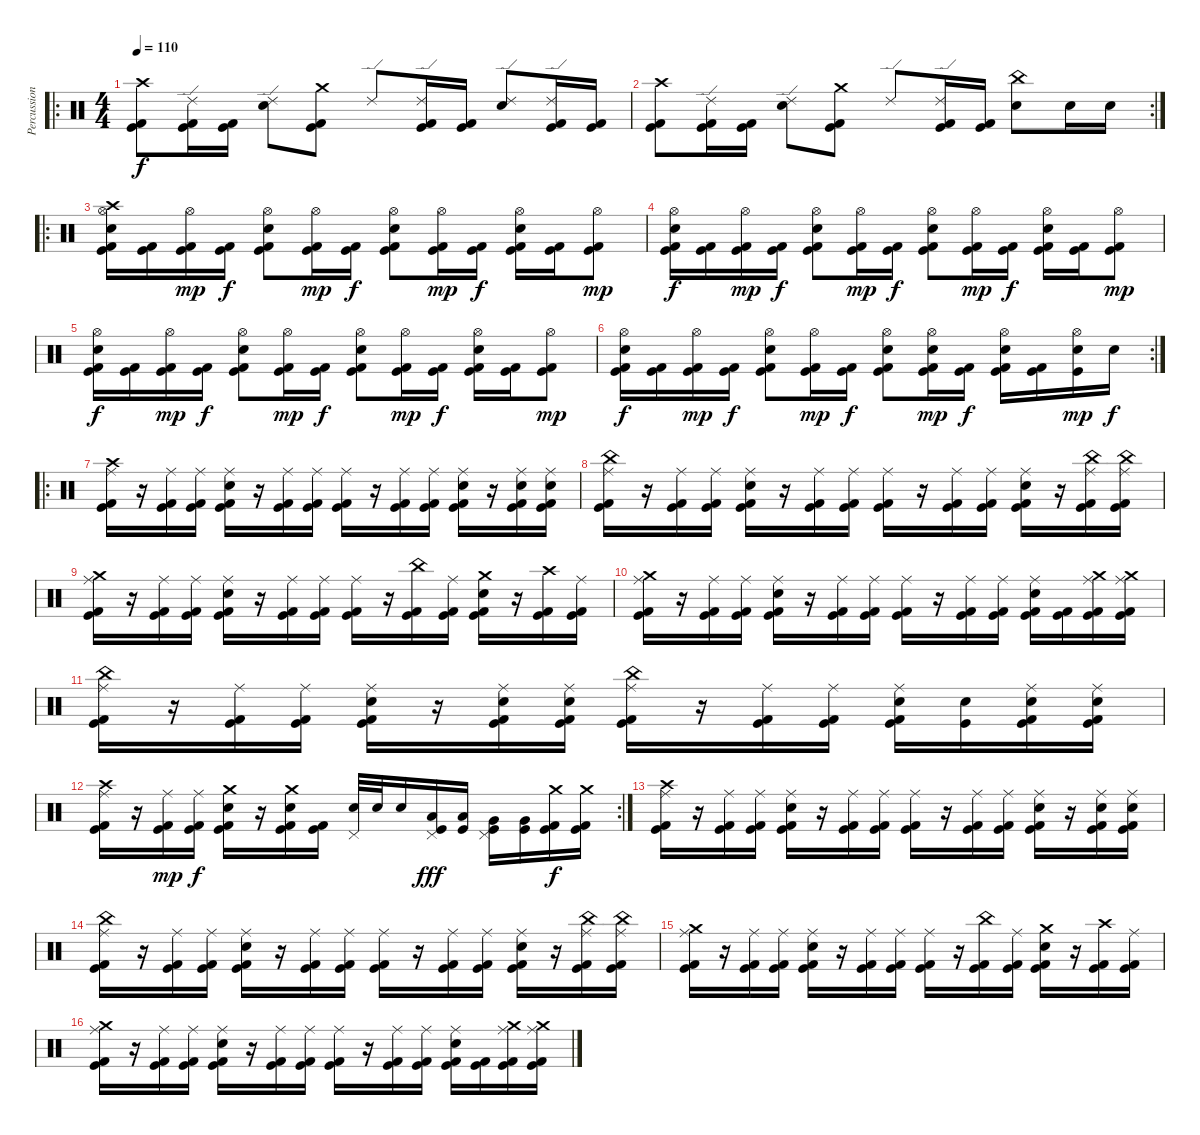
\track ("Percussion" "Percussion") {instrument percussion}
\staff {score}
\articulation defaults
\ro
\ts (4 4)
\tempo 110
\clef neutral
\ks c
("Crash high (hit)" "Kick (hit) 2" "Kick (hit)").8{dy f} ("Ride (edge) 2" "Kick (hit) 2" "Kick (hit)").16 ("Kick (hit) 2" "Kick (hit)").16 ("Ride (edge) 2" "Snare (hit) 2").8 ("Crash medium (hit)" "Kick (hit) 2" "Kick (hit)").8 "Ride (edge) 2".8 ("Ride (edge) 2" "Kick (hit) 2" "Kick (hit)").16 ("Kick (hit) 2" "Kick (hit)").16 ("Ride (edge) 2" "Snare (hit) 2").8 ("Ride (edge) 2" "Kick (hit) 2" "Kick (hit)").16 ("Kick (hit) 2" "Kick (hit)").16 |
\rc 2
("Crash high (hit)" "Kick (hit) 2" "Kick (hit)").8 ("Ride (edge) 2" "Kick (hit) 2" "Kick (hit)").16 ("Kick (hit) 2" "Kick (hit)").16 ("Ride (edge) 2" "Snare (hit) 2").8 ("Crash medium (hit)" "Kick (hit) 2" "Kick (hit)").8 "Ride (edge) 2".8 ("Ride (edge) 2" "Kick (hit) 2" "Kick (hit)").16 ("Kick (hit) 2" "Kick (hit)").16 ("China (hit)" "Snare (hit) 2").8 "Snare (hit) 2".16 "Snare (hit) 2".16 |
\ro
("Hi-Hat (open)" "Crash high (hit)" "Snare (hit) 2" "Kick (hit) 2" "Kick (hit)").16 ("Kick (hit) 2" "Kick (hit)").16 ("Hi-Hat (open)" "Kick (hit) 2" "Kick (hit)").16{dy mp} ("Kick (hit) 2" "Kick (hit)").16{dy f} ("Hi-Hat (open)" "Snare (hit) 2" "Kick (hit) 2" "Kick (hit)").8 ("Hi-Hat (open)" "Kick (hit) 2" "Kick (hit)").16{dy mp} ("Kick (hit) 2" "Kick (hit)").16{dy f} ("Hi-Hat (open)" "Snare (hit) 2" "Kick (hit) 2" "Kick (hit)").8 ("Hi-Hat (open)" "Kick (hit) 2" "Kick (hit)").16{dy mp} ("Kick (hit) 2" "Kick (hit)").16{dy f} ("Hi-Hat (open)" "Snare (hit) 2" "Kick (hit) 2" "Kick (hit)").16 ("Kick (hit) 2" "Kick (hit)").16 ("Hi-Hat (open)" "Kick (hit) 2" "Kick (hit)").8{dy mp} |
("Hi-Hat (open)" "Snare (hit) 2" "Kick (hit) 2" "Kick (hit)").16{dy f} ("Kick (hit) 2" "Kick (hit)").16 ("Hi-Hat (open)" "Kick (hit) 2" "Kick (hit)").16{dy mp} ("Kick (hit) 2" "Kick (hit)").16{dy f} ("Hi-Hat (open)" "Snare (hit) 2" "Kick (hit) 2" "Kick (hit)").8 ("Hi-Hat (open)" "Kick (hit) 2" "Kick (hit)").16{dy mp} ("Kick (hit) 2" "Kick (hit)").16{dy f} ("Hi-Hat (open)" "Snare (hit) 2" "Kick (hit) 2" "Kick (hit)").8 ("Hi-Hat (open)" "Kick (hit) 2" "Kick (hit)").16{dy mp} ("Kick (hit) 2" "Kick (hit)").16{dy f} ("Hi-Hat (open)" "Snare (hit) 2" "Kick (hit) 2" "Kick (hit)").16 ("Kick (hit) 2" "Kick (hit)").16 ("Hi-Hat (open)" "Kick (hit) 2" "Kick (hit)").8{dy mp} |
("Hi-Hat (open)" "Snare (hit) 2" "Kick (hit) 2" "Kick (hit)").16{dy f} ("Kick (hit) 2" "Kick (hit)").16 ("Hi-Hat (open)" "Kick (hit) 2" "Kick (hit)").16{dy mp} ("Kick (hit) 2" "Kick (hit)").16{dy f} ("Hi-Hat (open)" "Snare (hit) 2" "Kick (hit) 2" "Kick (hit)").8 ("Hi-Hat (open)" "Kick (hit) 2" "Kick (hit)").16{dy mp} ("Kick (hit) 2" "Kick (hit)").16{dy f} ("Hi-Hat (open)" "Snare (hit) 2" "Kick (hit) 2" "Kick (hit)").8 ("Hi-Hat (open)" "Kick (hit) 2" "Kick (hit)").16{dy mp} ("Kick (hit) 2" "Kick (hit)").16{dy f} ("Hi-Hat (open)" "Snare (hit) 2" "Kick (hit) 2" "Kick (hit)").16 ("Kick (hit) 2" "Kick (hit)").16 ("Hi-Hat (open)" "Kick (hit) 2" "Kick (hit)").8{dy mp} |
\rc 2
("Hi-Hat (open)" "Snare (hit) 2" "Kick (hit) 2" "Kick (hit)").16{dy f} ("Kick (hit) 2" "Kick (hit)").16 ("Hi-Hat (open)" "Kick (hit) 2" "Kick (hit)").16{dy mp} ("Kick (hit) 2" "Kick (hit)").16{dy f} ("Hi-Hat (open)" "Snare (hit) 2" "Kick (hit) 2" "Kick (hit)").8 ("Hi-Hat (open)" "Kick (hit) 2" "Kick (hit)").16{dy mp} ("Kick (hit) 2" "Kick (hit)").16{dy f} ("Hi-Hat (open)" "Snare (hit) 2" "Kick (hit) 2" "Kick (hit)").8 ("Hi-Hat (open)" "Snare (hit) 2" "Kick (hit) 2" "Kick (hit)").16{dy mp} ("Kick (hit) 2" "Kick (hit)").16{dy f} ("Hi-Hat (open)" "Snare (hit) 2" "Kick (hit) 2" "Kick (hit)").16 ("Kick (hit) 2" "Kick (hit)").16 ("Hi-Hat (open)" "Snare (hit) 2" "Kick (hit)").16{dy mp} "Snare (hit) 2".16{dy f} |
\ro
("Ride (middle)" "Crash high (hit)" "Kick (hit) 2" "Kick (hit)").16 r.16 ("Ride (middle)" "Kick (hit) 2" "Kick (hit)").16 ("Ride (middle)" "Kick (hit) 2" "Kick (hit)").16 ("Ride (middle)" "Snare (hit) 2" "Kick (hit) 2" "Kick (hit)").16 r.16 ("Ride (middle)" "Kick (hit) 2" "Kick (hit)").16 ("Ride (middle)" "Kick (hit) 2" "Kick (hit)").16 ("Ride (middle)" "Kick (hit) 2" "Kick (hit)").16 r.16 ("Ride (middle)" "Kick (hit) 2" "Kick (hit)").16 ("Ride (middle)" "Kick (hit) 2" "Kick (hit)").16 ("Ride (middle)" "Snare (hit) 2" "Kick (hit) 2" "Kick (hit)").16 r.16 ("Ride (middle)" "Snare (hit) 2" "Kick (hit) 2" "Kick (hit)").16 ("Ride (middle)" "Snare (hit) 2" "Kick (hit) 2" "Kick (hit)").16 |
("Ride (middle)" "China (hit)" "Kick (hit) 2" "Kick (hit)").16 r.16 ("Ride (middle)" "Kick (hit) 2" "Kick (hit)").16 ("Ride (middle)" "Kick (hit) 2" "Kick (hit)").16 ("Ride (middle)" "Snare (hit) 2" "Kick (hit) 2" "Kick (hit)").16 r.16 ("Ride (middle)" "Kick (hit) 2" "Kick (hit)").16 ("Ride (middle)" "Kick (hit) 2" "Kick (hit)").16 ("Ride (middle)" "Kick (hit) 2" "Kick (hit)").16 r.16 ("Ride (middle)" "Kick (hit) 2" "Kick (hit)").16 ("Ride (middle)" "Kick (hit) 2" "Kick (hit)").16 ("Ride (middle)" "Snare (hit) 2" "Kick (hit) 2" "Kick (hit)").16 r.16 ("Ride (middle)" "China (hit)" "Kick (hit) 2" "Kick (hit)").16 ("Ride (middle)" "China (hit)" "Kick (hit) 2" "Kick (hit)").16 |
("Ride (middle)" "Crash medium (hit)" "Kick (hit) 2" "Kick (hit)").16 r.16 ("Ride (middle)" "Kick (hit) 2" "Kick (hit)").16 ("Ride (middle)" "Kick (hit) 2" "Kick (hit)").16 ("Ride (middle)" "Snare (hit) 2" "Kick (hit) 2" "Kick (hit)").16 r.16 ("Ride (middle)" "Kick (hit) 2" "Kick (hit)").16 ("Ride (middle)" "Kick (hit) 2" "Kick (hit)").16 ("Ride (middle)" "Kick (hit) 2" "Kick (hit)").16 r.16 ("China (hit)" "Kick (hit) 2" "Kick (hit)").16 ("Ride (middle)" "Kick (hit) 2" "Kick (hit)").16 ("Crash medium (hit)" "Snare (hit) 2" "Kick (hit) 2" "Kick (hit)").16 r.16 ("Crash high (hit)" "Kick (hit) 2" "Kick (hit)").16 ("Ride (middle)" "Kick (hit) 2" "Kick (hit)").16 |
("Ride (middle)" "Crash medium (hit)" "Kick (hit) 2" "Kick (hit)").16 r.16 ("Ride (middle)" "Kick (hit) 2" "Kick (hit)").16 ("Ride (middle)" "Kick (hit) 2" "Kick (hit)").16 ("Ride (middle)" "Snare (hit) 2" "Kick (hit) 2" "Kick (hit)").16 r.16 ("Ride (middle)" "Kick (hit) 2" "Kick (hit)").16 ("Ride (middle)" "Kick (hit) 2" "Kick (hit)").16 ("Ride (middle)" "Kick (hit) 2" "Kick (hit)").16 r.16 ("Ride (middle)" "Kick (hit) 2" "Kick (hit)").16 ("Ride (middle)" "Kick (hit) 2" "Kick (hit)").16 ("Ride (middle)" "Snare (hit) 2" "Kick (hit) 2" "Kick (hit)").16 ("Kick (hit) 2" "Kick (hit)").16 ("Ride (middle)" "Crash medium (hit)" "Kick (hit) 2" "Kick (hit)").16 ("Ride (middle)" "Crash medium (hit)" "Kick (hit) 2" "Kick (hit)").16 |
("Ride (middle)" "China (hit)" "Kick (hit) 2" "Kick (hit)").16 r.16 ("Ride (middle)" "Kick (hit) 2" "Kick (hit)").16 ("Ride (middle)" "Kick (hit) 2" "Kick (hit)").16 ("Ride (middle)" "Snare (hit) 2" "Kick (hit) 2" "Kick (hit)").16 r.16 ("Ride (middle)" "Snare (hit) 2" "Kick (hit) 2" "Kick (hit)").16 ("Ride (middle)" "Snare (hit) 2" "Kick (hit) 2" "Kick (hit)").16 ("Ride (middle)" "China (hit)" "Kick (hit) 2" "Kick (hit)").16 r.16 ("Ride (middle)" "Kick (hit) 2" "Kick (hit)").16 ("Ride (middle)" "Kick (hit) 2" "Kick (hit)").16 ("Ride (middle)" "Snare (hit) 2" "Kick (hit) 2" "Kick (hit)").16 ("Snare (hit) 2" "Kick (hit)").16 ("Ride (middle)" "Snare (hit) 2" "Kick (hit) 2" "Kick (hit)").16 ("Ride (middle)" "Snare (hit) 2" "Kick (hit) 2" "Kick (hit)").16 |
\rc 2
("Ride (middle)" "Crash high (hit)" "Kick (hit) 2" "Kick (hit)").16 r.16 ("Ride (middle)" "Kick (hit) 2" "Kick (hit)").16{dy mp} ("Ride (middle)" "Kick (hit) 2" "Kick (hit)").16{dy f} ("Crash medium (hit)" "Snare (hit) 2" "Kick (hit) 2" "Kick (hit)").16 r.16 ("Crash medium (hit)" "Snare (hit) 2" "Kick (hit) 2" "Kick (hit)").16 ("Kick (hit) 2" "Kick (hit)").16 ("Pedal Hi-Hat (hit)" "Snare (hit) 2").32 "Snare (hit) 2".32 "Snare (hit) 2".16 ("Pedal Hi-Hat (hit)" "Low Tom (hit)" "Kick (hit)").16{dy fff} ("Low Tom (hit)" "Kick (hit)").16 ("Pedal Hi-Hat (hit)" "Very Low Tom (hit)" "Kick (hit)").16 ("Very Low Tom (hit)" "Kick (hit)").16 ("Crash medium (hit)" "Kick (hit) 2" "Kick (hit)").16{dy f} ("Crash medium (hit)" "Kick (hit) 2" "Kick (hit)").16 |
("Ride (middle)" "Crash high (hit)" "Kick (hit) 2" "Kick (hit)").16 r.16 ("Ride (middle)" "Kick (hit) 2" "Kick (hit)").16 ("Ride (middle)" "Kick (hit) 2" "Kick (hit)").16 ("Ride (middle)" "Snare (hit) 2" "Kick (hit) 2" "Kick (hit)").16 r.16 ("Ride (middle)" "Kick (hit) 2" "Kick (hit)").16 ("Ride (middle)" "Kick (hit) 2" "Kick (hit)").16 ("Ride (middle)" "Kick (hit) 2" "Kick (hit)").16 r.16 ("Ride (middle)" "Kick (hit) 2" "Kick (hit)").16 ("Ride (middle)" "Kick (hit) 2" "Kick (hit)").16 ("Ride (middle)" "Snare (hit) 2" "Kick (hit) 2" "Kick (hit)").16 r.16 ("Ride (middle)" "Snare (hit) 2" "Kick (hit) 2" "Kick (hit)").16 ("Ride (middle)" "Snare (hit) 2" "Kick (hit) 2" "Kick (hit)").16 |
("Ride (middle)" "China (hit)" "Kick (hit) 2" "Kick (hit)").16 r.16 ("Ride (middle)" "Kick (hit) 2" "Kick (hit)").16 ("Ride (middle)" "Kick (hit) 2" "Kick (hit)").16 ("Ride (middle)" "Snare (hit) 2" "Kick (hit) 2" "Kick (hit)").16 r.16 ("Ride (middle)" "Kick (hit) 2" "Kick (hit)").16 ("Ride (middle)" "Kick (hit) 2" "Kick (hit)").16 ("Ride (middle)" "Kick (hit) 2" "Kick (hit)").16 r.16 ("Ride (middle)" "Kick (hit) 2" "Kick (hit)").16 ("Ride (middle)" "Kick (hit) 2" "Kick (hit)").16 ("Ride (middle)" "Snare (hit) 2" "Kick (hit) 2" "Kick (hit)").16 r.16 ("Ride (middle)" "China (hit)" "Kick (hit) 2" "Kick (hit)").16 ("Ride (middle)" "China (hit)" "Kick (hit) 2" "Kick (hit)").16 |
("Ride (middle)" "Crash medium (hit)" "Kick (hit) 2" "Kick (hit)").16 r.16 ("Ride (middle)" "Kick (hit) 2" "Kick (hit)").16 ("Ride (middle)" "Kick (hit) 2" "Kick (hit)").16 ("Ride (middle)" "Snare (hit) 2" "Kick (hit) 2" "Kick (hit)").16 r.16 ("Ride (middle)" "Kick (hit) 2" "Kick (hit)").16 ("Ride (middle)" "Kick (hit) 2" "Kick (hit)").16 ("Ride (middle)" "Kick (hit) 2" "Kick (hit)").16 r.16 ("China (hit)" "Kick (hit) 2" "Kick (hit)").16 ("Ride (middle)" "Kick (hit) 2" "Kick (hit)").16 ("Crash medium (hit)" "Snare (hit) 2" "Kick (hit) 2" "Kick (hit)").16 r.16 ("Crash high (hit)" "Kick (hit) 2" "Kick (hit)").16 ("Ride (middle)" "Kick (hit) 2" "Kick (hit)").16 |
("Ride (middle)" "Crash medium (hit)" "Kick (hit) 2" "Kick (hit)").16 r.16 ("Ride (middle)" "Kick (hit) 2" "Kick (hit)").16 ("Ride (middle)" "Kick (hit) 2" "Kick (hit)").16 ("Ride (middle)" "Snare (hit) 2" "Kick (hit) 2" "Kick (hit)").16 r.16 ("Ride (middle)" "Kick (hit) 2" "Kick (hit)").16 ("Ride (middle)" "Kick (hit) 2" "Kick (hit)").16 ("Ride (middle)" "Kick (hit) 2" "Kick (hit)").16 r.16 ("Ride (middle)" "Kick (hit) 2" "Kick (hit)").16 ("Ride (middle)" "Kick (hit) 2" "Kick (hit)").16 ("Ride (middle)" "Snare (hit) 2" "Kick (hit) 2" "Kick (hit)").16 ("Kick (hit) 2" "Kick (hit)").16 ("Ride (middle)" "Crash medium (hit)" "Kick (hit) 2" "Kick (hit)").16 ("Ride (middle)" "Crash medium (hit)" "Kick (hit) 2" "Kick (hit)").16
